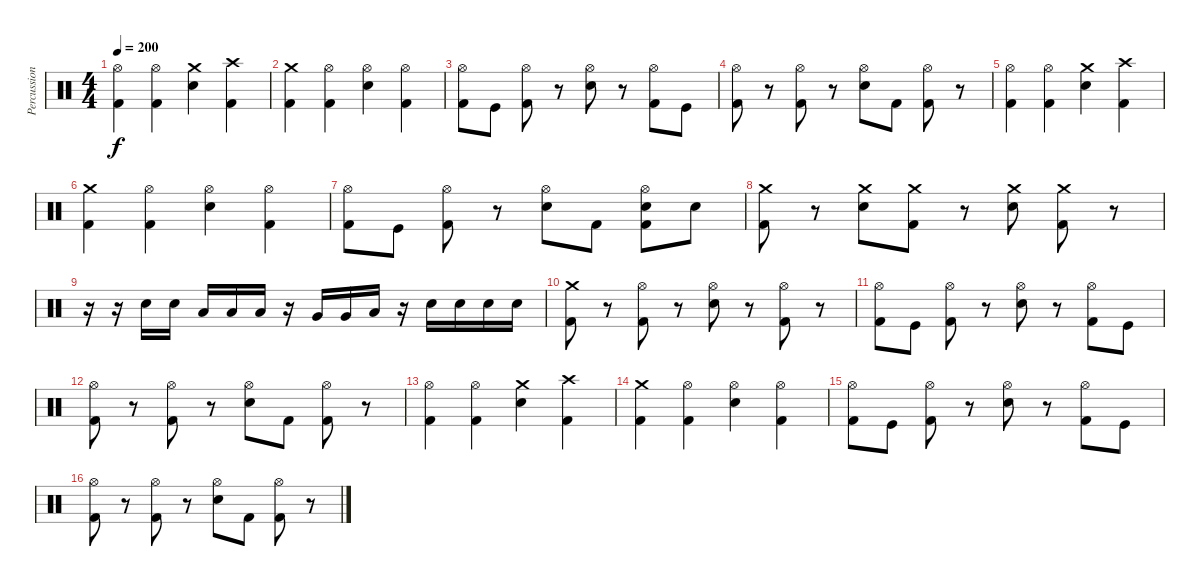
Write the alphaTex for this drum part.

\track ("Percussion" "Percussion") {instrument percussion}
\staff {score}
\articulation defaults
\ts (4 4)
\tempo 200
\clef neutral
\ks c
("Hi-Hat (open)" "Kick (hit) 2").4{dy f} ("Hi-Hat (open)" "Kick (hit) 2").4 ("Crash medium (hit)" "Snare (hit) 2").4 ("Crash high (hit)" "Kick (hit) 2").4 |
("Crash medium (hit)" "Kick (hit) 2").4 ("Hi-Hat (open)" "Kick (hit) 2").4 ("Hi-Hat (open)" "Snare (hit) 2").4 ("Hi-Hat (open)" "Kick (hit) 2").4 |
("Hi-Hat (open)" "Kick (hit) 2").8 "Kick (hit)".8 ("Hi-Hat (open)" "Kick (hit) 2").8 r.8 ("Hi-Hat (open)" "Snare (hit) 2").8 r.8 ("Hi-Hat (open)" "Kick (hit) 2").8 "Kick (hit)".8 |
("Hi-Hat (open)" "Kick (hit) 2").8 r.8 ("Hi-Hat (open)" "Kick (hit) 2").8 r.8 ("Hi-Hat (open)" "Snare (hit) 2").8 "Kick (hit) 2".8 ("Hi-Hat (open)" "Kick (hit) 2").8 r.8 |
("Hi-Hat (open)" "Kick (hit) 2").4 ("Hi-Hat (open)" "Kick (hit) 2").4 ("Crash medium (hit)" "Snare (hit) 2").4 ("Crash high (hit)" "Kick (hit) 2").4 |
("Crash medium (hit)" "Kick (hit) 2").4 ("Hi-Hat (open)" "Kick (hit) 2").4 ("Hi-Hat (open)" "Snare (hit) 2").4 ("Hi-Hat (open)" "Kick (hit) 2").4 |
("Hi-Hat (open)" "Kick (hit) 2").8 "Kick (hit)".8 ("Hi-Hat (open)" "Kick (hit) 2").8 r.8 ("Hi-Hat (open)" "Snare (hit) 2").8 "Kick (hit) 2".8 ("Hi-Hat (open)" "Snare (hit) 2" "Kick (hit) 2").8 "Snare (hit) 2".8 |
("Crash medium (hit)" "Kick (hit) 2").8 r.8 ("Crash medium (hit)" "Snare (hit) 2").8 ("Crash medium (hit)" "Kick (hit) 2").8 r.8 ("Crash medium (hit)" "Snare (hit) 2").8 ("Crash medium (hit)" "Kick (hit) 2").8 r.8 |
r.16 r.16 "Snare (hit) 2".16 "Snare (hit) 2".16 "Low Tom (hit)".16 "Low Tom (hit)".16 "Low Tom (hit)".16 r.16 "Very Low Tom (hit)".16 "Very Low Tom (hit)".16 "Low Floor Tom (hit)".16 r.16 "Snare (hit) 2".16 "Snare (hit) 2".16 "Snare (hit) 2".16 "Snare (hit) 2".16 |
("Crash medium (hit)" "Kick (hit) 2").8 r.8 ("Hi-Hat (open)" "Kick (hit) 2").8 r.8 ("Hi-Hat (open)" "Snare (hit) 2").8 r.8 ("Hi-Hat (open)" "Kick (hit) 2").8 r.8 |
("Hi-Hat (open)" "Kick (hit) 2").8 "Kick (hit)".8 ("Hi-Hat (open)" "Kick (hit) 2").8 r.8 ("Hi-Hat (open)" "Snare (hit) 2").8 r.8 ("Hi-Hat (open)" "Kick (hit) 2").8 "Kick (hit)".8 |
("Hi-Hat (open)" "Kick (hit) 2").8 r.8 ("Hi-Hat (open)" "Kick (hit) 2").8 r.8 ("Hi-Hat (open)" "Snare (hit) 2").8 "Kick (hit) 2".8 ("Hi-Hat (open)" "Kick (hit) 2").8 r.8 |
("Hi-Hat (open)" "Kick (hit) 2").4 ("Hi-Hat (open)" "Kick (hit) 2").4 ("Crash medium (hit)" "Snare (hit) 2").4 ("Crash high (hit)" "Kick (hit) 2").4 |
("Crash medium (hit)" "Kick (hit) 2").4 ("Hi-Hat (open)" "Kick (hit) 2").4 ("Hi-Hat (open)" "Snare (hit) 2").4 ("Hi-Hat (open)" "Kick (hit) 2").4 |
("Hi-Hat (open)" "Kick (hit) 2").8 "Kick (hit)".8 ("Hi-Hat (open)" "Kick (hit) 2").8 r.8 ("Hi-Hat (open)" "Snare (hit) 2").8 r.8 ("Hi-Hat (open)" "Kick (hit) 2").8 "Kick (hit)".8 |
("Hi-Hat (open)" "Kick (hit) 2").8 r.8 ("Hi-Hat (open)" "Kick (hit) 2").8 r.8 ("Hi-Hat (open)" "Snare (hit) 2").8 "Kick (hit) 2".8 ("Hi-Hat (open)" "Kick (hit) 2").8 r.8
